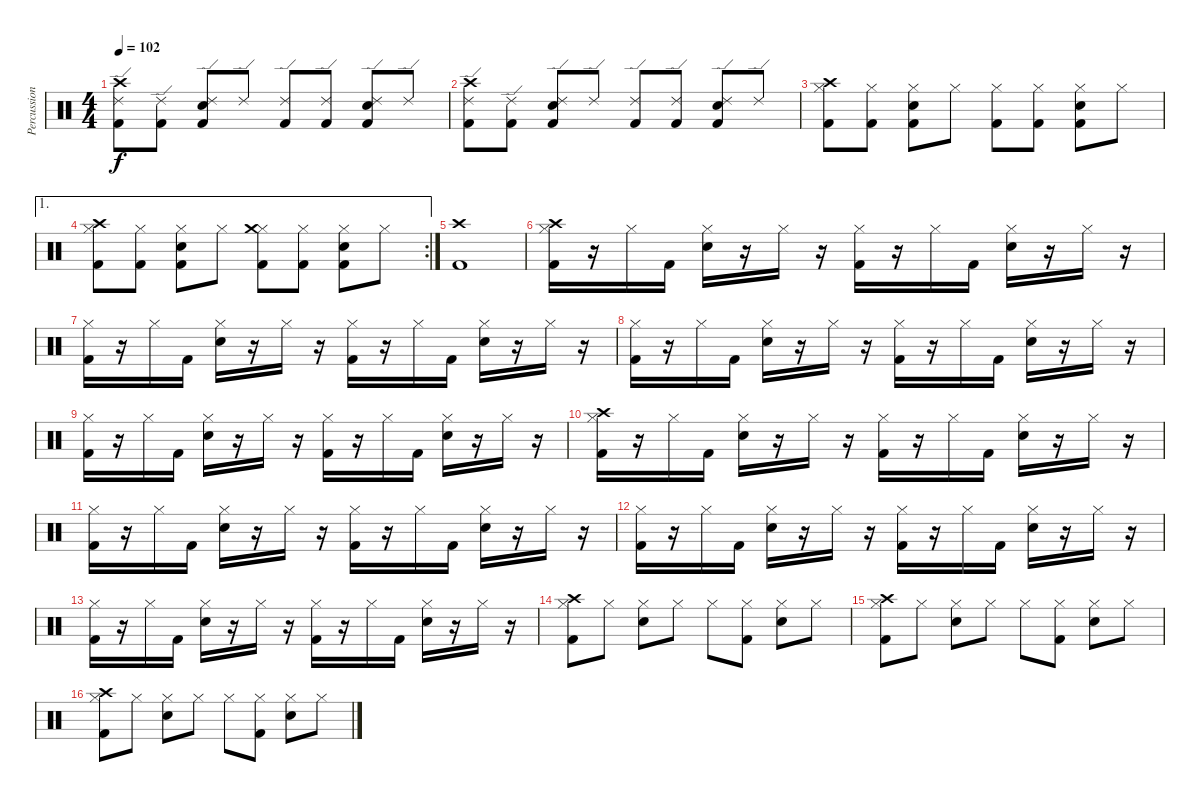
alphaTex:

\track ("Percussion" "Percussion") {instrument percussion}
\staff {score}
\articulation defaults
\ts (4 4)
\tempo 102
\clef neutral
\ks c
("Kick (hit) 2" "Ride (edge) 2" "Crash high (hit)").8{dy f} ("Kick (hit) 2" "Ride (edge) 2").8 ("Kick (hit) 2" "Snare (hit) 2" "Ride (edge) 2").8 "Ride (edge) 2".8 ("Kick (hit) 2" "Ride (edge) 2").8 ("Kick (hit) 2" "Ride (edge) 2").8 ("Kick (hit) 2" "Snare (hit) 2" "Ride (edge) 2").8 "Ride (edge) 2".8 |
("Kick (hit) 2" "Ride (edge) 2" "Crash high (hit)").8 ("Kick (hit) 2" "Ride (edge) 2").8 ("Kick (hit) 2" "Snare (hit) 2" "Ride (edge) 2").8 "Ride (edge) 2".8 ("Kick (hit) 2" "Ride (edge) 2").8 ("Kick (hit) 2" "Ride (edge) 2").8 ("Kick (hit) 2" "Snare (hit) 2" "Ride (edge) 2").8 "Ride (edge) 2".8 |
("Kick (hit) 2" "Hi-Hat (closed)" "Crash high (hit)").8 ("Kick (hit) 2" "Hi-Hat (closed)").8 ("Kick (hit) 2" "Snare (hit) 2" "Hi-Hat (closed)").8 "Hi-Hat (closed)".8 ("Kick (hit) 2" "Hi-Hat (closed)").8 ("Kick (hit) 2" "Hi-Hat (closed)").8 ("Kick (hit) 2" "Snare (hit) 2" "Hi-Hat (closed)").8 "Hi-Hat (closed)".8 |
\ae 1
\rc 2
("Kick (hit) 2" "Hi-Hat (closed)" "Crash high (hit)").8 ("Kick (hit) 2" "Hi-Hat (closed)").8 ("Kick (hit) 2" "Snare (hit) 2" "Hi-Hat (closed)").8 "Hi-Hat (closed)".8 ("Kick (hit) 2" "Hi-Hat (closed)" "Crash medium (hit)").8 ("Kick (hit) 2" "Hi-Hat (closed)").8 ("Kick (hit) 2" "Snare (hit) 2" "Hi-Hat (closed)").8 "Hi-Hat (closed)".8 |
("Kick (hit) 2" "Crash high (hit)").1 |
("Kick (hit) 2" "Hi-Hat (closed)" "Crash high (hit)").16 r.16 "Hi-Hat (closed)".16 "Kick (hit) 2".16 ("Snare (hit) 2" "Hi-Hat (closed)").16 r.16 "Hi-Hat (closed)".16 r.16 ("Kick (hit) 2" "Hi-Hat (closed)").16 r.16 "Hi-Hat (closed)".16 "Kick (hit) 2".16 ("Snare (hit) 2" "Hi-Hat (closed)").16 r.16 "Hi-Hat (closed)".16 r.16 |
("Kick (hit) 2" "Hi-Hat (closed)").16 r.16 "Hi-Hat (closed)".16 "Kick (hit) 2".16 ("Snare (hit) 2" "Hi-Hat (closed)").16 r.16 "Hi-Hat (closed)".16 r.16 ("Kick (hit) 2" "Hi-Hat (closed)").16 r.16 "Hi-Hat (closed)".16 "Kick (hit) 2".16 ("Snare (hit) 2" "Hi-Hat (closed)").16 r.16 "Hi-Hat (closed)".16 r.16 |
("Kick (hit) 2" "Hi-Hat (closed)").16 r.16 "Hi-Hat (closed)".16 "Kick (hit) 2".16 ("Snare (hit) 2" "Hi-Hat (closed)").16 r.16 "Hi-Hat (closed)".16 r.16 ("Kick (hit) 2" "Hi-Hat (closed)").16 r.16 "Hi-Hat (closed)".16 "Kick (hit) 2".16 ("Snare (hit) 2" "Hi-Hat (closed)").16 r.16 "Hi-Hat (closed)".16 r.16 |
("Kick (hit) 2" "Hi-Hat (closed)").16 r.16 "Hi-Hat (closed)".16 "Kick (hit) 2".16 ("Snare (hit) 2" "Hi-Hat (closed)").16 r.16 "Hi-Hat (closed)".16 r.16 ("Kick (hit) 2" "Hi-Hat (closed)").16 r.16 "Hi-Hat (closed)".16 "Kick (hit) 2".16 ("Snare (hit) 2" "Hi-Hat (closed)").16 r.16 "Hi-Hat (closed)".16 r.16 |
("Kick (hit) 2" "Hi-Hat (closed)" "Crash high (hit)").16 r.16 "Hi-Hat (closed)".16 "Kick (hit) 2".16 ("Snare (hit) 2" "Hi-Hat (closed)").16 r.16 "Hi-Hat (closed)".16 r.16 ("Kick (hit) 2" "Hi-Hat (closed)").16 r.16 "Hi-Hat (closed)".16 "Kick (hit) 2".16 ("Snare (hit) 2" "Hi-Hat (closed)").16 r.16 "Hi-Hat (closed)".16 r.16 |
("Kick (hit) 2" "Hi-Hat (closed)").16 r.16 "Hi-Hat (closed)".16 "Kick (hit) 2".16 ("Snare (hit) 2" "Hi-Hat (closed)").16 r.16 "Hi-Hat (closed)".16 r.16 ("Kick (hit) 2" "Hi-Hat (closed)").16 r.16 "Hi-Hat (closed)".16 "Kick (hit) 2".16 ("Snare (hit) 2" "Hi-Hat (closed)").16 r.16 "Hi-Hat (closed)".16 r.16 |
("Kick (hit) 2" "Hi-Hat (closed)").16 r.16 "Hi-Hat (closed)".16 "Kick (hit) 2".16 ("Snare (hit) 2" "Hi-Hat (closed)").16 r.16 "Hi-Hat (closed)".16 r.16 ("Kick (hit) 2" "Hi-Hat (closed)").16 r.16 "Hi-Hat (closed)".16 "Kick (hit) 2".16 ("Snare (hit) 2" "Hi-Hat (closed)").16 r.16 "Hi-Hat (closed)".16 r.16 |
("Kick (hit) 2" "Hi-Hat (closed)").16 r.16 "Hi-Hat (closed)".16 "Kick (hit) 2".16 ("Snare (hit) 2" "Hi-Hat (closed)").16 r.16 "Hi-Hat (closed)".16 r.16 ("Kick (hit) 2" "Hi-Hat (closed)").16 r.16 "Hi-Hat (closed)".16 "Kick (hit) 2".16 ("Snare (hit) 2" "Hi-Hat (closed)").16 r.16 "Hi-Hat (closed)".16 r.16 |
("Kick (hit) 2" "Hi-Hat (closed)" "Crash high (hit)").8 "Hi-Hat (closed)".8 ("Snare (hit) 2" "Hi-Hat (closed)").8 "Hi-Hat (closed)".8 "Hi-Hat (closed)".8 ("Kick (hit) 2" "Hi-Hat (closed)").8 ("Snare (hit) 2" "Hi-Hat (closed)").8 "Hi-Hat (closed)".8 |
("Kick (hit) 2" "Hi-Hat (closed)" "Crash high (hit)").8 "Hi-Hat (closed)".8 ("Snare (hit) 2" "Hi-Hat (closed)").8 "Hi-Hat (closed)".8 "Hi-Hat (closed)".8 ("Kick (hit) 2" "Hi-Hat (closed)").8 ("Snare (hit) 2" "Hi-Hat (closed)").8 "Hi-Hat (closed)".8 |
("Kick (hit) 2" "Hi-Hat (closed)" "Crash high (hit)").8 "Hi-Hat (closed)".8 ("Snare (hit) 2" "Hi-Hat (closed)").8 "Hi-Hat (closed)".8 "Hi-Hat (closed)".8 ("Kick (hit) 2" "Hi-Hat (closed)").8 ("Snare (hit) 2" "Hi-Hat (closed)").8 "Hi-Hat (closed)".8
